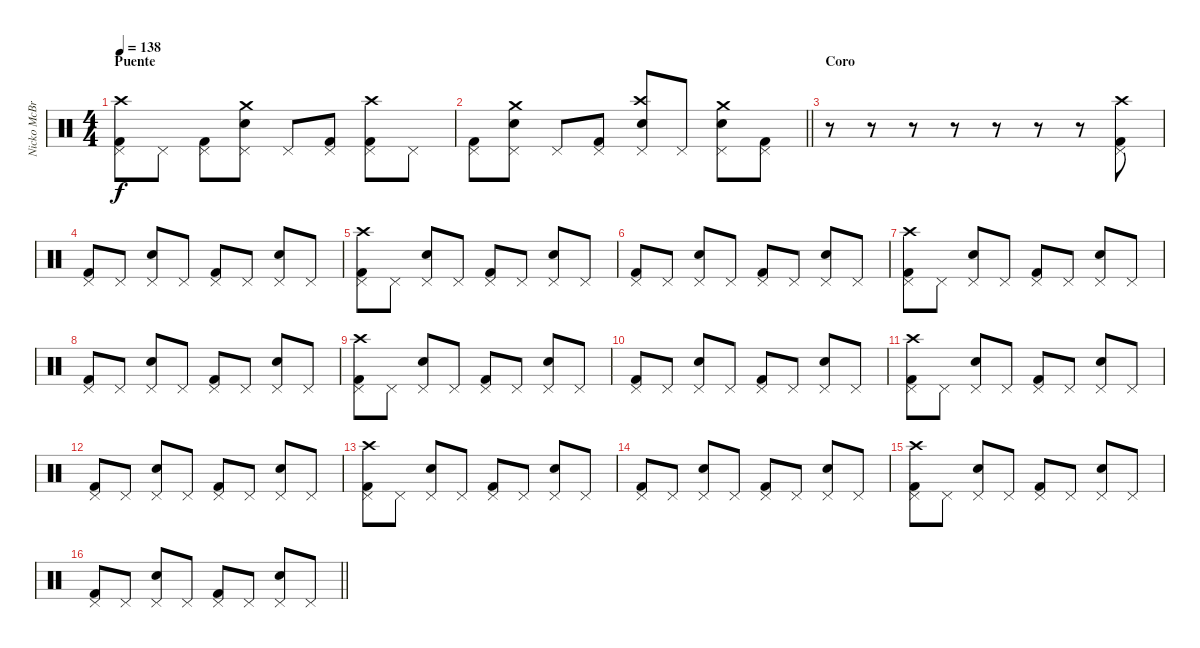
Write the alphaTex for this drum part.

\track ("Nicko McBrain" "Nicko McBr") {instrument percussion}
\staff {score}
\articulation defaults
\ts (4 4)
\section ("" "Puente")
\tempo 138
\clef neutral
\ks c
("Kick (hit) 2" "Pedal Hi-Hat (hit)" "Crash high (hit)").8{dy f} "Pedal Hi-Hat (hit)".8 ("Kick (hit) 2" "Pedal Hi-Hat (hit)").8 ("Snare (hit) 2" "Pedal Hi-Hat (hit)" "Crash medium (hit)").8 "Pedal Hi-Hat (hit)".8 ("Kick (hit) 2" "Pedal Hi-Hat (hit)").8 ("Kick (hit) 2" "Pedal Hi-Hat (hit)" "Crash high (hit)").8 "Pedal Hi-Hat (hit)".8 |
\barLineRight lightlight
("Kick (hit) 2" "Pedal Hi-Hat (hit)").8 ("Snare (hit) 2" "Pedal Hi-Hat (hit)" "Crash medium (hit)").8 "Pedal Hi-Hat (hit)".8 ("Kick (hit) 2" "Pedal Hi-Hat (hit)").8 ("Snare (hit) 2" "Pedal Hi-Hat (hit)" "Crash high (hit)").8 "Pedal Hi-Hat (hit)".8 ("Snare (hit) 2" "Pedal Hi-Hat (hit)" "Crash medium (hit)").8 ("Kick (hit) 2" "Pedal Hi-Hat (hit)").8 |
\section ("" "Coro")
r.8 r.8 r.8 r.8 r.8 r.8 r.8 ("Kick (hit) 2" "Pedal Hi-Hat (hit)" "Crash high (hit)").8 |
("Kick (hit) 2" "Pedal Hi-Hat (hit)").8 "Pedal Hi-Hat (hit)".8 ("Snare (hit) 2" "Pedal Hi-Hat (hit)").8 "Pedal Hi-Hat (hit)".8 ("Kick (hit) 2" "Pedal Hi-Hat (hit)").8 "Pedal Hi-Hat (hit)".8 ("Snare (hit) 2" "Pedal Hi-Hat (hit)").8 "Pedal Hi-Hat (hit)".8 |
("Kick (hit) 2" "Pedal Hi-Hat (hit)" "Crash high (hit)").8 "Pedal Hi-Hat (hit)".8 ("Snare (hit) 2" "Pedal Hi-Hat (hit)").8 "Pedal Hi-Hat (hit)".8 ("Kick (hit) 2" "Pedal Hi-Hat (hit)").8 "Pedal Hi-Hat (hit)".8 ("Snare (hit) 2" "Pedal Hi-Hat (hit)").8 "Pedal Hi-Hat (hit)".8 |
("Kick (hit) 2" "Pedal Hi-Hat (hit)").8 "Pedal Hi-Hat (hit)".8 ("Snare (hit) 2" "Pedal Hi-Hat (hit)").8 "Pedal Hi-Hat (hit)".8 ("Kick (hit) 2" "Pedal Hi-Hat (hit)").8 "Pedal Hi-Hat (hit)".8 ("Snare (hit) 2" "Pedal Hi-Hat (hit)").8 "Pedal Hi-Hat (hit)".8 |
("Kick (hit) 2" "Pedal Hi-Hat (hit)" "Crash high (hit)").8 "Pedal Hi-Hat (hit)".8 ("Snare (hit) 2" "Pedal Hi-Hat (hit)").8 "Pedal Hi-Hat (hit)".8 ("Kick (hit) 2" "Pedal Hi-Hat (hit)").8 "Pedal Hi-Hat (hit)".8 ("Snare (hit) 2" "Pedal Hi-Hat (hit)").8 "Pedal Hi-Hat (hit)".8 |
("Kick (hit) 2" "Pedal Hi-Hat (hit)").8 "Pedal Hi-Hat (hit)".8 ("Snare (hit) 2" "Pedal Hi-Hat (hit)").8 "Pedal Hi-Hat (hit)".8 ("Kick (hit) 2" "Pedal Hi-Hat (hit)").8 "Pedal Hi-Hat (hit)".8 ("Snare (hit) 2" "Pedal Hi-Hat (hit)").8 "Pedal Hi-Hat (hit)".8 |
("Kick (hit) 2" "Pedal Hi-Hat (hit)" "Crash high (hit)").8 "Pedal Hi-Hat (hit)".8 ("Snare (hit) 2" "Pedal Hi-Hat (hit)").8 "Pedal Hi-Hat (hit)".8 ("Kick (hit) 2" "Pedal Hi-Hat (hit)").8 "Pedal Hi-Hat (hit)".8 ("Snare (hit) 2" "Pedal Hi-Hat (hit)").8 "Pedal Hi-Hat (hit)".8 |
("Kick (hit) 2" "Pedal Hi-Hat (hit)").8 "Pedal Hi-Hat (hit)".8 ("Snare (hit) 2" "Pedal Hi-Hat (hit)").8 "Pedal Hi-Hat (hit)".8 ("Kick (hit) 2" "Pedal Hi-Hat (hit)").8 "Pedal Hi-Hat (hit)".8 ("Snare (hit) 2" "Pedal Hi-Hat (hit)").8 "Pedal Hi-Hat (hit)".8 |
("Kick (hit) 2" "Pedal Hi-Hat (hit)" "Crash high (hit)").8 "Pedal Hi-Hat (hit)".8 ("Snare (hit) 2" "Pedal Hi-Hat (hit)").8 "Pedal Hi-Hat (hit)".8 ("Kick (hit) 2" "Pedal Hi-Hat (hit)").8 "Pedal Hi-Hat (hit)".8 ("Snare (hit) 2" "Pedal Hi-Hat (hit)").8 "Pedal Hi-Hat (hit)".8 |
("Kick (hit) 2" "Pedal Hi-Hat (hit)").8 "Pedal Hi-Hat (hit)".8 ("Snare (hit) 2" "Pedal Hi-Hat (hit)").8 "Pedal Hi-Hat (hit)".8 ("Kick (hit) 2" "Pedal Hi-Hat (hit)").8 "Pedal Hi-Hat (hit)".8 ("Snare (hit) 2" "Pedal Hi-Hat (hit)").8 "Pedal Hi-Hat (hit)".8 |
("Kick (hit) 2" "Pedal Hi-Hat (hit)" "Crash high (hit)").8 "Pedal Hi-Hat (hit)".8 ("Snare (hit) 2" "Pedal Hi-Hat (hit)").8 "Pedal Hi-Hat (hit)".8 ("Kick (hit) 2" "Pedal Hi-Hat (hit)").8 "Pedal Hi-Hat (hit)".8 ("Snare (hit) 2" "Pedal Hi-Hat (hit)").8 "Pedal Hi-Hat (hit)".8 |
("Kick (hit) 2" "Pedal Hi-Hat (hit)").8 "Pedal Hi-Hat (hit)".8 ("Snare (hit) 2" "Pedal Hi-Hat (hit)").8 "Pedal Hi-Hat (hit)".8 ("Kick (hit) 2" "Pedal Hi-Hat (hit)").8 "Pedal Hi-Hat (hit)".8 ("Snare (hit) 2" "Pedal Hi-Hat (hit)").8 "Pedal Hi-Hat (hit)".8 |
("Kick (hit) 2" "Pedal Hi-Hat (hit)" "Crash high (hit)").8 "Pedal Hi-Hat (hit)".8 ("Snare (hit) 2" "Pedal Hi-Hat (hit)").8 "Pedal Hi-Hat (hit)".8 ("Kick (hit) 2" "Pedal Hi-Hat (hit)").8 "Pedal Hi-Hat (hit)".8 ("Snare (hit) 2" "Pedal Hi-Hat (hit)").8 "Pedal Hi-Hat (hit)".8 |
\barLineRight lightlight
("Kick (hit) 2" "Pedal Hi-Hat (hit)").8 "Pedal Hi-Hat (hit)".8 ("Snare (hit) 2" "Pedal Hi-Hat (hit)").8 "Pedal Hi-Hat (hit)".8 ("Kick (hit) 2" "Pedal Hi-Hat (hit)").8 "Pedal Hi-Hat (hit)".8 ("Snare (hit) 2" "Pedal Hi-Hat (hit)").8 "Pedal Hi-Hat (hit)".8
